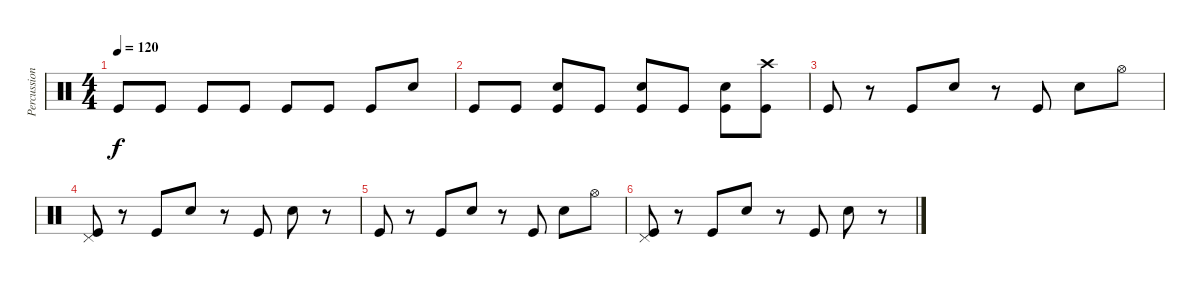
\track ("Percussion" "Percussion") {instrument percussion}
\staff {score}
\articulation defaults
\ts (4 4)
\tempo 120
\clef neutral
\ks c "Kick (hit)".8{dy f} "Kick (hit)".8 "Kick (hit)".8 "Kick (hit)".8 "Kick (hit)".8 "Kick (hit)".8 "Kick (hit)".8 "Electric Snare (hit)".8
|
"Kick (hit)".8 "Kick (hit)".8 ("Electric Snare (hit)" "Kick (hit)").8 "Kick (hit)".8 ("Electric Snare (hit)" "Kick (hit)").8 "Kick (hit)".8 ("Electric Snare (hit)" "Kick (hit)").8 ("Crash high (hit)" "Kick (hit)").8 |
"Kick (hit)".8 r.8 "Kick (hit)".8 "Electric Snare (hit)".8 r.8 "Kick (hit)".8 "Electric Snare (hit)".8 "Hi-Hat (open)".8 |
("Pedal Hi-Hat (hit)" "Kick (hit)").8 r.8 "Kick (hit)".8 "Electric Snare (hit)".8 r.8 "Kick (hit)".8 "Electric Snare (hit)".8 r.8 |
"Kick (hit)".8 r.8 "Kick (hit)".8 "Electric Snare (hit)".8 r.8 "Kick (hit)".8 "Electric Snare (hit)".8 "Hi-Hat (open)".8 |
("Pedal Hi-Hat (hit)" "Kick (hit)").8 r.8 "Kick (hit)".8 "Electric Snare (hit)".8 r.8 "Kick (hit)".8 "Electric Snare (hit)".8 r.8
